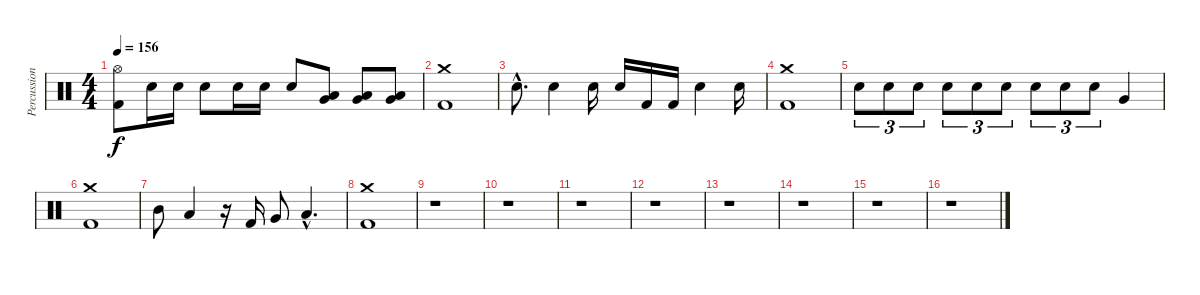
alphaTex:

\track ("Percussions" "Percussion") {instrument percussion}
\staff {score}
\articulation defaults
\ts (4 4)
\tempo 156
\clef neutral
\ks c
("Kick (hit) 2" "Hi-Hat (open)").8{dy f} "Electric Snare (hit)".16 "Electric Snare (hit)".16 "Electric Snare (hit)".8 "Electric Snare (hit)".16 "Electric Snare (hit)".16 "Electric Snare (hit)".8 ("Very Low Tom (hit)" "Low Tom (hit)").8 ("Very Low Tom (hit)" "Low Tom (hit)").8 ("Very Low Tom (hit)" "Low Floor Tom (hit)").8 |
("Kick (hit) 2" "Crash medium (hit)").1 |
"Electric Snare (hit)"{hac}.8{d} "Electric Snare (hit)".4 "Electric Snare (hit)".16 "Electric Snare (hit)".16 "Kick (hit) 2".16 "Kick (hit) 2".16 "Electric Snare (hit)".4 "Electric Snare (hit)".16 |
("Kick (hit) 2" "Crash medium (hit)").1 |
"Electric Snare (hit)".8{tu (3 2)} "Electric Snare (hit)".8{tu (3 2)} "Electric Snare (hit)".8{tu (3 2)} "Electric Snare (hit)".8{tu (3 2)} "Electric Snare (hit)".8{tu (3 2)} "Electric Snare (hit)".8{tu (3 2)} "Electric Snare (hit)".8{tu (3 2)} "Electric Snare (hit)".8{tu (3 2)} "Electric Snare (hit)".8{tu (3 2)} "Very Low Tom (hit)".4 |
("Kick (hit) 2" "Crash medium (hit)").1 |
"Mid Tom (hit)".8 "Low Tom (hit)".4 r.16 "Kick (hit) 2".16 "Very Low Tom (hit)".8 "Low Floor Tom (hit)"{hac}.4{d} |
("Kick (hit) 2" "Crash medium (hit)").1 |
r.1 |
r.1 |
r.1 |
r.1 |
r.1 |
r.1 |
r.1 |
r.1
